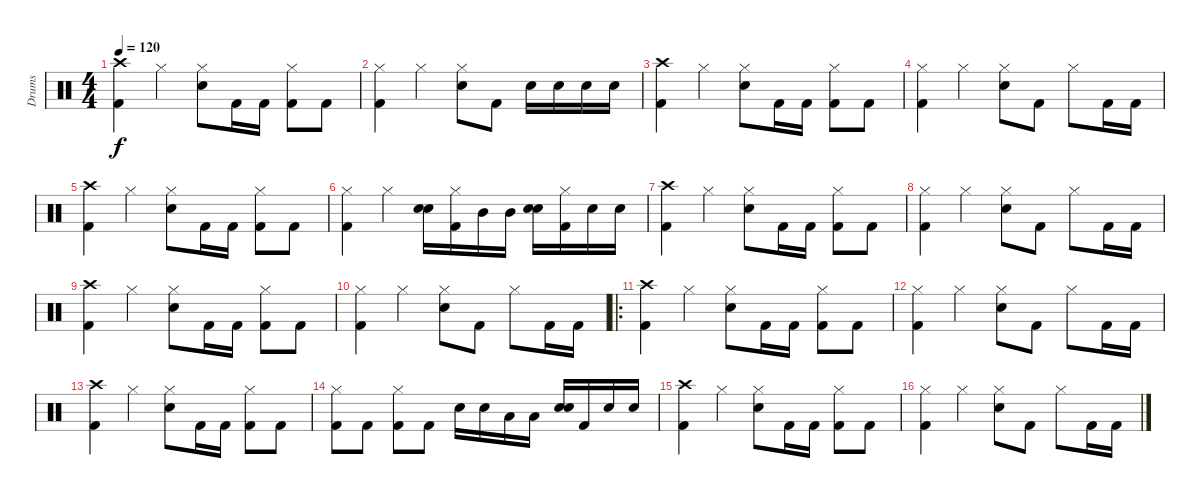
\track ("Drums" "Drums") {instrument percussion}
\staff {score}
\articulation defaults
\ts (4 4)
\tempo 120
\clef neutral
\ks c
("Crash high (hit)" "Kick (hit) 2").4{dy f} "Hi-Hat (closed)".4 ("Hi-Hat (closed)" "Electric Snare (hit)").8 "Kick (hit) 2".16 "Kick (hit) 2".16 ("Hi-Hat (closed)" "Kick (hit) 2").8 "Kick (hit) 2".8 |
("Hi-Hat (closed)" "Kick (hit) 2").4 "Hi-Hat (closed)".4 ("Hi-Hat (closed)" "Electric Snare (hit)").8 "Kick (hit) 2".8 "Electric Snare (hit)".16 "Electric Snare (hit)".16 "Electric Snare (hit)".16 "Electric Snare (hit)".16 |
("Crash high (hit)" "Kick (hit) 2").4 "Hi-Hat (closed)".4 ("Hi-Hat (closed)" "Electric Snare (hit)").8 "Kick (hit) 2".16 "Kick (hit) 2".16 ("Hi-Hat (closed)" "Kick (hit) 2").8 "Kick (hit) 2".8 |
("Hi-Hat (closed)" "Kick (hit) 2").4 "Hi-Hat (closed)".4 ("Hi-Hat (closed)" "Electric Snare (hit)").8 "Kick (hit) 2".8 "Hi-Hat (closed)".8 "Kick (hit) 2".16 "Kick (hit) 2".16 |
("Crash high (hit)" "Kick (hit) 2").4 "Hi-Hat (closed)".4 ("Hi-Hat (closed)" "Electric Snare (hit)").8 "Kick (hit) 2".16 "Kick (hit) 2".16 ("Hi-Hat (closed)" "Kick (hit) 2").8 "Kick (hit) 2".8 |
("Hi-Hat (closed)" "Kick (hit) 2").4 "Hi-Hat (closed)".4 ("Electric Snare (hit)" "Electric Snare (hit)").16{bd 240} ("Hi-Hat (closed)" "Kick (hit) 2").16 "Mid Tom (hit)".16 "Mid Tom (hit)".16 ("Electric Snare (hit)" "Electric Snare (hit)").16{bd 240} ("Hi-Hat (closed)" "Kick (hit) 2").16 "Electric Snare (hit)".16 "Electric Snare (hit)".16 |
("Crash high (hit)" "Kick (hit) 2").4 "Hi-Hat (closed)".4 ("Hi-Hat (closed)" "Electric Snare (hit)").8 "Kick (hit) 2".16 "Kick (hit) 2".16 ("Hi-Hat (closed)" "Kick (hit) 2").8 "Kick (hit) 2".8 |
("Hi-Hat (closed)" "Kick (hit) 2").4 "Hi-Hat (closed)".4 ("Hi-Hat (closed)" "Electric Snare (hit)").8 "Kick (hit) 2".8 "Hi-Hat (closed)".8 "Kick (hit) 2".16 "Kick (hit) 2".16 |
("Crash high (hit)" "Kick (hit) 2").4 "Hi-Hat (closed)".4 ("Hi-Hat (closed)" "Electric Snare (hit)").8 "Kick (hit) 2".16 "Kick (hit) 2".16 ("Hi-Hat (closed)" "Kick (hit) 2").8 "Kick (hit) 2".8 |
("Hi-Hat (closed)" "Kick (hit) 2").4 "Hi-Hat (closed)".4 ("Hi-Hat (closed)" "Electric Snare (hit)").8 "Kick (hit) 2".8 "Hi-Hat (closed)".8 "Kick (hit) 2".16 "Kick (hit) 2".16 |
\ro
("Crash high (hit)" "Kick (hit) 2").4 "Hi-Hat (closed)".4 ("Hi-Hat (closed)" "Electric Snare (hit)").8 "Kick (hit) 2".16 "Kick (hit) 2".16 ("Hi-Hat (closed)" "Kick (hit) 2").8 "Kick (hit) 2".8 |
("Hi-Hat (closed)" "Kick (hit) 2").4 "Hi-Hat (closed)".4 ("Hi-Hat (closed)" "Electric Snare (hit)").8 "Kick (hit) 2".8 "Hi-Hat (closed)".8 "Kick (hit) 2".16 "Kick (hit) 2".16 |
("Crash high (hit)" "Kick (hit) 2").4 "Hi-Hat (closed)".4 ("Hi-Hat (closed)" "Electric Snare (hit)").8 "Kick (hit) 2".16 "Kick (hit) 2".16 ("Hi-Hat (closed)" "Kick (hit) 2").8 "Kick (hit) 2".8 |
("Hi-Hat (closed)" "Kick (hit) 2").8 "Kick (hit) 2".8 ("Hi-Hat (closed)" "Kick (hit) 2").8 "Kick (hit) 2".8 "Electric Snare (hit)".16 "Electric Snare (hit)".16 "Low Tom (hit)".16 "Low Tom (hit)".16 ("Electric Snare (hit)" "Electric Snare (hit)").16{bd 240} "Kick (hit) 2".16 "Electric Snare (hit)".16 "Electric Snare (hit)".16 |
("Crash high (hit)" "Kick (hit) 2").4 "Hi-Hat (closed)".4 ("Hi-Hat (closed)" "Electric Snare (hit)").8 "Kick (hit) 2".16 "Kick (hit) 2".16 ("Hi-Hat (closed)" "Kick (hit) 2").8 "Kick (hit) 2".8 |
("Hi-Hat (closed)" "Kick (hit) 2").4 "Hi-Hat (closed)".4 ("Hi-Hat (closed)" "Electric Snare (hit)").8 "Kick (hit) 2".8 "Hi-Hat (closed)".8 "Kick (hit) 2".16 "Kick (hit) 2".16
